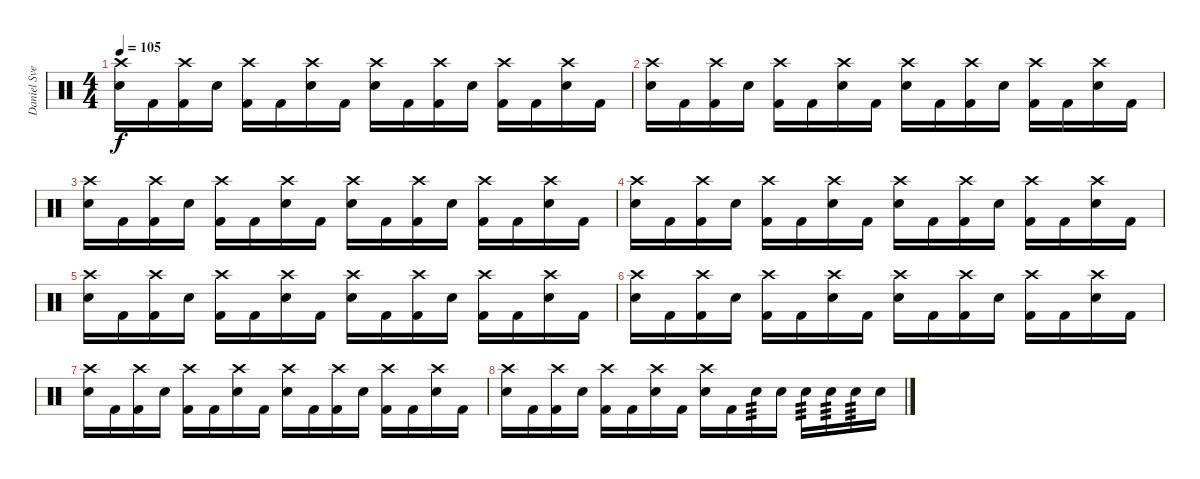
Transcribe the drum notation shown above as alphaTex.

\track ("Daniel Svensson" "Daniel Sve") {instrument percussion}
\staff {score}
\articulation defaults
\ts (4 4)
\tempo 105
\clef neutral
\ks c
("Crash high (hit)" "Electric Snare (hit)").16{dy f} "Kick (hit) 2".16 ("Crash high (hit)" "Kick (hit) 2").16 "Electric Snare (hit)".16 ("Crash high (hit)" "Kick (hit) 2").16 "Kick (hit) 2".16 ("Crash high (hit)" "Electric Snare (hit)").16 "Kick (hit) 2".16 ("Crash high (hit)" "Electric Snare (hit)").16 "Kick (hit) 2".16 ("Crash high (hit)" "Kick (hit) 2").16 "Electric Snare (hit)".16 ("Crash high (hit)" "Kick (hit) 2").16 "Kick (hit) 2".16 ("Crash high (hit)" "Electric Snare (hit)").16 "Kick (hit) 2".16 |
("Crash high (hit)" "Electric Snare (hit)").16 "Kick (hit) 2".16 ("Crash high (hit)" "Kick (hit) 2").16 "Electric Snare (hit)".16 ("Crash high (hit)" "Kick (hit) 2").16 "Kick (hit) 2".16 ("Crash high (hit)" "Electric Snare (hit)").16 "Kick (hit) 2".16 ("Crash high (hit)" "Electric Snare (hit)").16 "Kick (hit) 2".16 ("Crash high (hit)" "Kick (hit) 2").16 "Electric Snare (hit)".16 ("Crash high (hit)" "Kick (hit) 2").16 "Kick (hit) 2".16 ("Crash high (hit)" "Electric Snare (hit)").16 "Kick (hit) 2".16 |
("Crash high (hit)" "Electric Snare (hit)").16 "Kick (hit) 2".16 ("Crash high (hit)" "Kick (hit) 2").16 "Electric Snare (hit)".16 ("Crash high (hit)" "Kick (hit) 2").16 "Kick (hit) 2".16 ("Crash high (hit)" "Electric Snare (hit)").16 "Kick (hit) 2".16 ("Crash high (hit)" "Electric Snare (hit)").16 "Kick (hit) 2".16 ("Crash high (hit)" "Kick (hit) 2").16 "Electric Snare (hit)".16 ("Crash high (hit)" "Kick (hit) 2").16 "Kick (hit) 2".16 ("Crash high (hit)" "Electric Snare (hit)").16 "Kick (hit) 2".16 |
("Crash high (hit)" "Electric Snare (hit)").16 "Kick (hit) 2".16 ("Crash high (hit)" "Kick (hit) 2").16 "Electric Snare (hit)".16 ("Crash high (hit)" "Kick (hit) 2").16 "Kick (hit) 2".16 ("Crash high (hit)" "Electric Snare (hit)").16 "Kick (hit) 2".16 ("Crash high (hit)" "Electric Snare (hit)").16 "Kick (hit) 2".16 ("Crash high (hit)" "Kick (hit) 2").16 "Electric Snare (hit)".16 ("Crash high (hit)" "Kick (hit) 2").16 "Kick (hit) 2".16 ("Crash high (hit)" "Electric Snare (hit)").16 "Kick (hit) 2".16 |
("Crash high (hit)" "Electric Snare (hit)").16 "Kick (hit) 2".16 ("Crash high (hit)" "Kick (hit) 2").16 "Electric Snare (hit)".16 ("Crash high (hit)" "Kick (hit) 2").16 "Kick (hit) 2".16 ("Crash high (hit)" "Electric Snare (hit)").16 "Kick (hit) 2".16 ("Crash high (hit)" "Electric Snare (hit)").16 "Kick (hit) 2".16 ("Crash high (hit)" "Kick (hit) 2").16 "Electric Snare (hit)".16 ("Crash high (hit)" "Kick (hit) 2").16 "Kick (hit) 2".16 ("Crash high (hit)" "Electric Snare (hit)").16 "Kick (hit) 2".16 |
("Crash high (hit)" "Electric Snare (hit)").16 "Kick (hit) 2".16 ("Crash high (hit)" "Kick (hit) 2").16 "Electric Snare (hit)".16 ("Crash high (hit)" "Kick (hit) 2").16 "Kick (hit) 2".16 ("Crash high (hit)" "Electric Snare (hit)").16 "Kick (hit) 2".16 ("Crash high (hit)" "Electric Snare (hit)").16 "Kick (hit) 2".16 ("Crash high (hit)" "Kick (hit) 2").16 "Electric Snare (hit)".16 ("Crash high (hit)" "Kick (hit) 2").16 "Kick (hit) 2".16 ("Crash high (hit)" "Electric Snare (hit)").16 "Kick (hit) 2".16 |
("Crash high (hit)" "Electric Snare (hit)").16 "Kick (hit) 2".16 ("Crash high (hit)" "Kick (hit) 2").16 "Electric Snare (hit)".16 ("Crash high (hit)" "Kick (hit) 2").16 "Kick (hit) 2".16 ("Crash high (hit)" "Electric Snare (hit)").16 "Kick (hit) 2".16 ("Crash high (hit)" "Electric Snare (hit)").16 "Kick (hit) 2".16 ("Crash high (hit)" "Kick (hit) 2").16 "Electric Snare (hit)".16 ("Crash high (hit)" "Kick (hit) 2").16 "Kick (hit) 2".16 ("Crash high (hit)" "Electric Snare (hit)").16 "Kick (hit) 2".16 |
("Crash high (hit)" "Electric Snare (hit)").16 "Kick (hit) 2".16 ("Crash high (hit)" "Kick (hit) 2").16 "Electric Snare (hit)".16 ("Crash high (hit)" "Kick (hit) 2").16 "Kick (hit) 2".16 ("Crash high (hit)" "Electric Snare (hit)").16 "Kick (hit) 2".16 ("Crash high (hit)" "Electric Snare (hit)").16 "Kick (hit) 2".16 "Electric Snare (hit)".16{tp 3} "Electric Snare (hit)".16 "Electric Snare (hit)".16{tp 3} "Electric Snare (hit)".16{tp 3} "Electric Snare (hit)".16{tp 3} "Electric Snare (hit)".16
